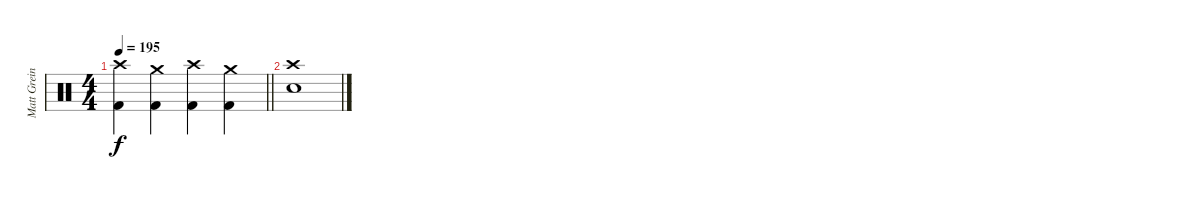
\track ("Matt Greiner" "Matt Grein") {instrument percussion}
\staff {score}
\articulation defaults
\ts (4 4)
\tempo 195
\clef neutral
\barLineRight lightlight
\ks c
("Crash high (hit)" "Kick (hit) 2").4{dy f} ("Crash medium (hit)" "Kick (hit) 2").4 ("Crash high (hit)" "Kick (hit) 2").4 ("Crash medium (hit)" "Kick (hit) 2").4 |
\section ("" "")
("Crash high (hit)" "Electric Snare (hit)").1
